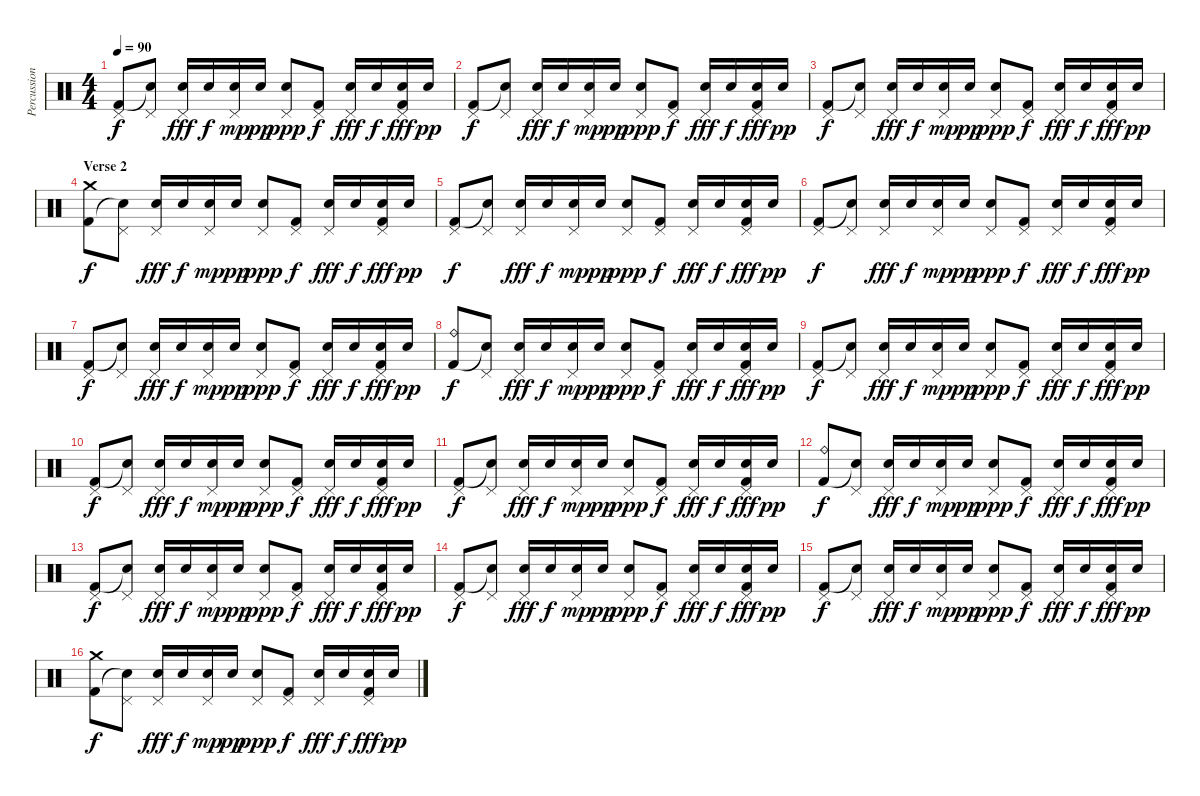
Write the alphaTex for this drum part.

\track ("Percussion" "Percussion") {instrument percussion}
\staff {score}
\articulation defaults
\ts (4 4)
\tempo 90
\clef neutral
\ks c
("Pedal Hi-Hat (hit)" "Kick (hit) 2").8{dy f} ("Pedal Hi-Hat (hit)" "Snare (hit)"{t}).8 ("Pedal Hi-Hat (hit)" "Electric Snare (hit)").16{dy fff} "Electric Snare (hit)".16{dy f} ("Pedal Hi-Hat (hit)" "Electric Snare (hit)").16{dy mp} "Electric Snare (hit)".16{dy pp} ("Pedal Hi-Hat (hit)" "Electric Snare (hit)").8{dy ppp} ("Pedal Hi-Hat (hit)" "Kick (hit) 2").8{dy f} ("Pedal Hi-Hat (hit)" "Electric Snare (hit)").16{dy fff} "Electric Snare (hit)".16{dy f} ("Pedal Hi-Hat (hit)" "Electric Snare (hit)" "Kick (hit) 2").16{dy fff} "Electric Snare (hit)".16{dy pp} |
("Pedal Hi-Hat (hit)" "Kick (hit) 2").8{dy f} ("Pedal Hi-Hat (hit)" "Snare (hit)"{t}).8 ("Pedal Hi-Hat (hit)" "Electric Snare (hit)").16{dy fff} "Electric Snare (hit)".16{dy f} ("Pedal Hi-Hat (hit)" "Electric Snare (hit)").16{dy mp} "Electric Snare (hit)".16{dy pp} ("Pedal Hi-Hat (hit)" "Electric Snare (hit)").8{dy ppp} ("Pedal Hi-Hat (hit)" "Kick (hit) 2").8{dy f} ("Pedal Hi-Hat (hit)" "Electric Snare (hit)").16{dy fff} "Electric Snare (hit)".16{dy f} ("Pedal Hi-Hat (hit)" "Electric Snare (hit)" "Kick (hit) 2").16{dy fff} "Electric Snare (hit)".16{dy pp} |
("Pedal Hi-Hat (hit)" "Kick (hit) 2").8{dy f} ("Pedal Hi-Hat (hit)" "Snare (hit)"{t}).8 ("Pedal Hi-Hat (hit)" "Electric Snare (hit)").16{dy fff} "Electric Snare (hit)".16{dy f} ("Pedal Hi-Hat (hit)" "Electric Snare (hit)").16{dy mp} "Electric Snare (hit)".16{dy pp} ("Pedal Hi-Hat (hit)" "Electric Snare (hit)").8{dy ppp} ("Pedal Hi-Hat (hit)" "Kick (hit) 2").8{dy f} ("Pedal Hi-Hat (hit)" "Electric Snare (hit)").16{dy fff} "Electric Snare (hit)".16{dy f} ("Pedal Hi-Hat (hit)" "Electric Snare (hit)" "Kick (hit) 2").16{dy fff} "Electric Snare (hit)".16{dy pp} |
\section ("" "Verse 2")
("Crash medium (hit)" "Kick (hit) 2").8{dy f} ("Pedal Hi-Hat (hit)" "Snare (hit)"{t}).8 ("Pedal Hi-Hat (hit)" "Electric Snare (hit)").16{dy fff} "Electric Snare (hit)".16{dy f} ("Pedal Hi-Hat (hit)" "Electric Snare (hit)").16{dy mp} "Electric Snare (hit)".16{dy pp} ("Pedal Hi-Hat (hit)" "Electric Snare (hit)").8{dy ppp} ("Pedal Hi-Hat (hit)" "Kick (hit) 2").8{dy f} ("Pedal Hi-Hat (hit)" "Electric Snare (hit)").16{dy fff} "Electric Snare (hit)".16{dy f} ("Pedal Hi-Hat (hit)" "Electric Snare (hit)" "Kick (hit) 2").16{dy fff} "Electric Snare (hit)".16{dy pp} |
("Pedal Hi-Hat (hit)" "Kick (hit) 2").8{dy f} ("Pedal Hi-Hat (hit)" "Snare (hit)"{t}).8 ("Pedal Hi-Hat (hit)" "Electric Snare (hit)").16{dy fff} "Electric Snare (hit)".16{dy f} ("Pedal Hi-Hat (hit)" "Electric Snare (hit)").16{dy mp} "Electric Snare (hit)".16{dy pp} ("Pedal Hi-Hat (hit)" "Electric Snare (hit)").8{dy ppp} ("Pedal Hi-Hat (hit)" "Kick (hit) 2").8{dy f} ("Pedal Hi-Hat (hit)" "Electric Snare (hit)").16{dy fff} "Electric Snare (hit)".16{dy f} ("Pedal Hi-Hat (hit)" "Electric Snare (hit)" "Kick (hit) 2").16{dy fff} "Electric Snare (hit)".16{dy pp} |
("Pedal Hi-Hat (hit)" "Kick (hit) 2").8{dy f} ("Pedal Hi-Hat (hit)" "Snare (hit)"{t}).8 ("Pedal Hi-Hat (hit)" "Electric Snare (hit)").16{dy fff} "Electric Snare (hit)".16{dy f} ("Pedal Hi-Hat (hit)" "Electric Snare (hit)").16{dy mp} "Electric Snare (hit)".16{dy pp} ("Pedal Hi-Hat (hit)" "Electric Snare (hit)").8{dy ppp} ("Pedal Hi-Hat (hit)" "Kick (hit) 2").8{dy f} ("Pedal Hi-Hat (hit)" "Electric Snare (hit)").16{dy fff} "Electric Snare (hit)".16{dy f} ("Pedal Hi-Hat (hit)" "Electric Snare (hit)" "Kick (hit) 2").16{dy fff} "Electric Snare (hit)".16{dy pp} |
("Pedal Hi-Hat (hit)" "Kick (hit) 2").8{dy f} ("Pedal Hi-Hat (hit)" "Snare (hit)"{t}).8 ("Pedal Hi-Hat (hit)" "Electric Snare (hit)").16{dy fff} "Electric Snare (hit)".16{dy f} ("Pedal Hi-Hat (hit)" "Electric Snare (hit)").16{dy mp} "Electric Snare (hit)".16{dy pp} ("Pedal Hi-Hat (hit)" "Electric Snare (hit)").8{dy ppp} ("Pedal Hi-Hat (hit)" "Kick (hit) 2").8{dy f} ("Pedal Hi-Hat (hit)" "Electric Snare (hit)").16{dy fff} "Electric Snare (hit)".16{dy f} ("Pedal Hi-Hat (hit)" "Electric Snare (hit)" "Kick (hit) 2").16{dy fff} "Electric Snare (hit)".16{dy pp} |
("Ride (bell)" "Kick (hit) 2").8{dy f} ("Pedal Hi-Hat (hit)" "Snare (hit)"{t}).8 ("Pedal Hi-Hat (hit)" "Electric Snare (hit)").16{dy fff} "Electric Snare (hit)".16{dy f} ("Pedal Hi-Hat (hit)" "Electric Snare (hit)").16{dy mp} "Electric Snare (hit)".16{dy pp} ("Pedal Hi-Hat (hit)" "Electric Snare (hit)").8{dy ppp} ("Pedal Hi-Hat (hit)" "Kick (hit) 2").8{dy f} ("Pedal Hi-Hat (hit)" "Electric Snare (hit)").16{dy fff} "Electric Snare (hit)".16{dy f} ("Pedal Hi-Hat (hit)" "Electric Snare (hit)" "Kick (hit) 2").16{dy fff} "Electric Snare (hit)".16{dy pp} |
("Pedal Hi-Hat (hit)" "Kick (hit) 2").8{dy f} ("Pedal Hi-Hat (hit)" "Snare (hit)"{t}).8 ("Pedal Hi-Hat (hit)" "Electric Snare (hit)").16{dy fff} "Electric Snare (hit)".16{dy f} ("Pedal Hi-Hat (hit)" "Electric Snare (hit)").16{dy mp} "Electric Snare (hit)".16{dy pp} ("Pedal Hi-Hat (hit)" "Electric Snare (hit)").8{dy ppp} ("Pedal Hi-Hat (hit)" "Kick (hit) 2").8{dy f} ("Pedal Hi-Hat (hit)" "Electric Snare (hit)").16{dy fff} "Electric Snare (hit)".16{dy f} ("Pedal Hi-Hat (hit)" "Electric Snare (hit)" "Kick (hit) 2").16{dy fff} "Electric Snare (hit)".16{dy pp} |
("Pedal Hi-Hat (hit)" "Kick (hit) 2").8{dy f} ("Pedal Hi-Hat (hit)" "Snare (hit)"{t}).8 ("Pedal Hi-Hat (hit)" "Electric Snare (hit)").16{dy fff} "Electric Snare (hit)".16{dy f} ("Pedal Hi-Hat (hit)" "Electric Snare (hit)").16{dy mp} "Electric Snare (hit)".16{dy pp} ("Pedal Hi-Hat (hit)" "Electric Snare (hit)").8{dy ppp} ("Pedal Hi-Hat (hit)" "Kick (hit) 2").8{dy f} ("Pedal Hi-Hat (hit)" "Electric Snare (hit)").16{dy fff} "Electric Snare (hit)".16{dy f} ("Pedal Hi-Hat (hit)" "Electric Snare (hit)" "Kick (hit) 2").16{dy fff} "Electric Snare (hit)".16{dy pp} |
("Pedal Hi-Hat (hit)" "Kick (hit) 2").8{dy f} ("Pedal Hi-Hat (hit)" "Snare (hit)"{t}).8 ("Pedal Hi-Hat (hit)" "Electric Snare (hit)").16{dy fff} "Electric Snare (hit)".16{dy f} ("Pedal Hi-Hat (hit)" "Electric Snare (hit)").16{dy mp} "Electric Snare (hit)".16{dy pp} ("Pedal Hi-Hat (hit)" "Electric Snare (hit)").8{dy ppp} ("Pedal Hi-Hat (hit)" "Kick (hit) 2").8{dy f} ("Pedal Hi-Hat (hit)" "Electric Snare (hit)").16{dy fff} "Electric Snare (hit)".16{dy f} ("Pedal Hi-Hat (hit)" "Electric Snare (hit)" "Kick (hit) 2").16{dy fff} "Electric Snare (hit)".16{dy pp} |
("Ride (bell)" "Kick (hit) 2").8{dy f} ("Pedal Hi-Hat (hit)" "Snare (hit)"{t}).8 ("Pedal Hi-Hat (hit)" "Electric Snare (hit)").16{dy fff} "Electric Snare (hit)".16{dy f} ("Pedal Hi-Hat (hit)" "Electric Snare (hit)").16{dy mp} "Electric Snare (hit)".16{dy pp} ("Pedal Hi-Hat (hit)" "Electric Snare (hit)").8{dy ppp} ("Pedal Hi-Hat (hit)" "Kick (hit) 2").8{dy f} ("Pedal Hi-Hat (hit)" "Electric Snare (hit)").16{dy fff} "Electric Snare (hit)".16{dy f} ("Pedal Hi-Hat (hit)" "Electric Snare (hit)" "Kick (hit) 2").16{dy fff} "Electric Snare (hit)".16{dy pp} |
("Pedal Hi-Hat (hit)" "Kick (hit) 2").8{dy f} ("Pedal Hi-Hat (hit)" "Snare (hit)"{t}).8 ("Pedal Hi-Hat (hit)" "Electric Snare (hit)").16{dy fff} "Electric Snare (hit)".16{dy f} ("Pedal Hi-Hat (hit)" "Electric Snare (hit)").16{dy mp} "Electric Snare (hit)".16{dy pp} ("Pedal Hi-Hat (hit)" "Electric Snare (hit)").8{dy ppp} ("Pedal Hi-Hat (hit)" "Kick (hit) 2").8{dy f} ("Pedal Hi-Hat (hit)" "Electric Snare (hit)").16{dy fff} "Electric Snare (hit)".16{dy f} ("Pedal Hi-Hat (hit)" "Electric Snare (hit)" "Kick (hit) 2").16{dy fff} "Electric Snare (hit)".16{dy pp} |
("Pedal Hi-Hat (hit)" "Kick (hit) 2").8{dy f} ("Pedal Hi-Hat (hit)" "Snare (hit)"{t}).8 ("Pedal Hi-Hat (hit)" "Electric Snare (hit)").16{dy fff} "Electric Snare (hit)".16{dy f} ("Pedal Hi-Hat (hit)" "Electric Snare (hit)").16{dy mp} "Electric Snare (hit)".16{dy pp} ("Pedal Hi-Hat (hit)" "Electric Snare (hit)").8{dy ppp} ("Pedal Hi-Hat (hit)" "Kick (hit) 2").8{dy f} ("Pedal Hi-Hat (hit)" "Electric Snare (hit)").16{dy fff} "Electric Snare (hit)".16{dy f} ("Pedal Hi-Hat (hit)" "Electric Snare (hit)" "Kick (hit) 2").16{dy fff} "Electric Snare (hit)".16{dy pp} |
("Pedal Hi-Hat (hit)" "Kick (hit) 2").8{dy f} ("Pedal Hi-Hat (hit)" "Snare (hit)"{t}).8 ("Pedal Hi-Hat (hit)" "Electric Snare (hit)").16{dy fff} "Electric Snare (hit)".16{dy f} ("Pedal Hi-Hat (hit)" "Electric Snare (hit)").16{dy mp} "Electric Snare (hit)".16{dy pp} ("Pedal Hi-Hat (hit)" "Electric Snare (hit)").8{dy ppp} ("Pedal Hi-Hat (hit)" "Kick (hit) 2").8{dy f} ("Pedal Hi-Hat (hit)" "Electric Snare (hit)").16{dy fff} "Electric Snare (hit)".16{dy f} ("Pedal Hi-Hat (hit)" "Electric Snare (hit)" "Kick (hit) 2").16{dy fff} "Electric Snare (hit)".16{dy pp} |
("Crash medium (hit)" "Kick (hit) 2").8{dy f} ("Pedal Hi-Hat (hit)" "Snare (hit)"{t}).8 ("Pedal Hi-Hat (hit)" "Electric Snare (hit)").16{dy fff} "Electric Snare (hit)".16{dy f} ("Pedal Hi-Hat (hit)" "Electric Snare (hit)").16{dy mp} "Electric Snare (hit)".16{dy pp} ("Pedal Hi-Hat (hit)" "Electric Snare (hit)").8{dy ppp} ("Pedal Hi-Hat (hit)" "Kick (hit) 2").8{dy f} ("Pedal Hi-Hat (hit)" "Electric Snare (hit)").16{dy fff} "Electric Snare (hit)".16{dy f} ("Pedal Hi-Hat (hit)" "Electric Snare (hit)" "Kick (hit) 2").16{dy fff} "Electric Snare (hit)".16{dy pp}
